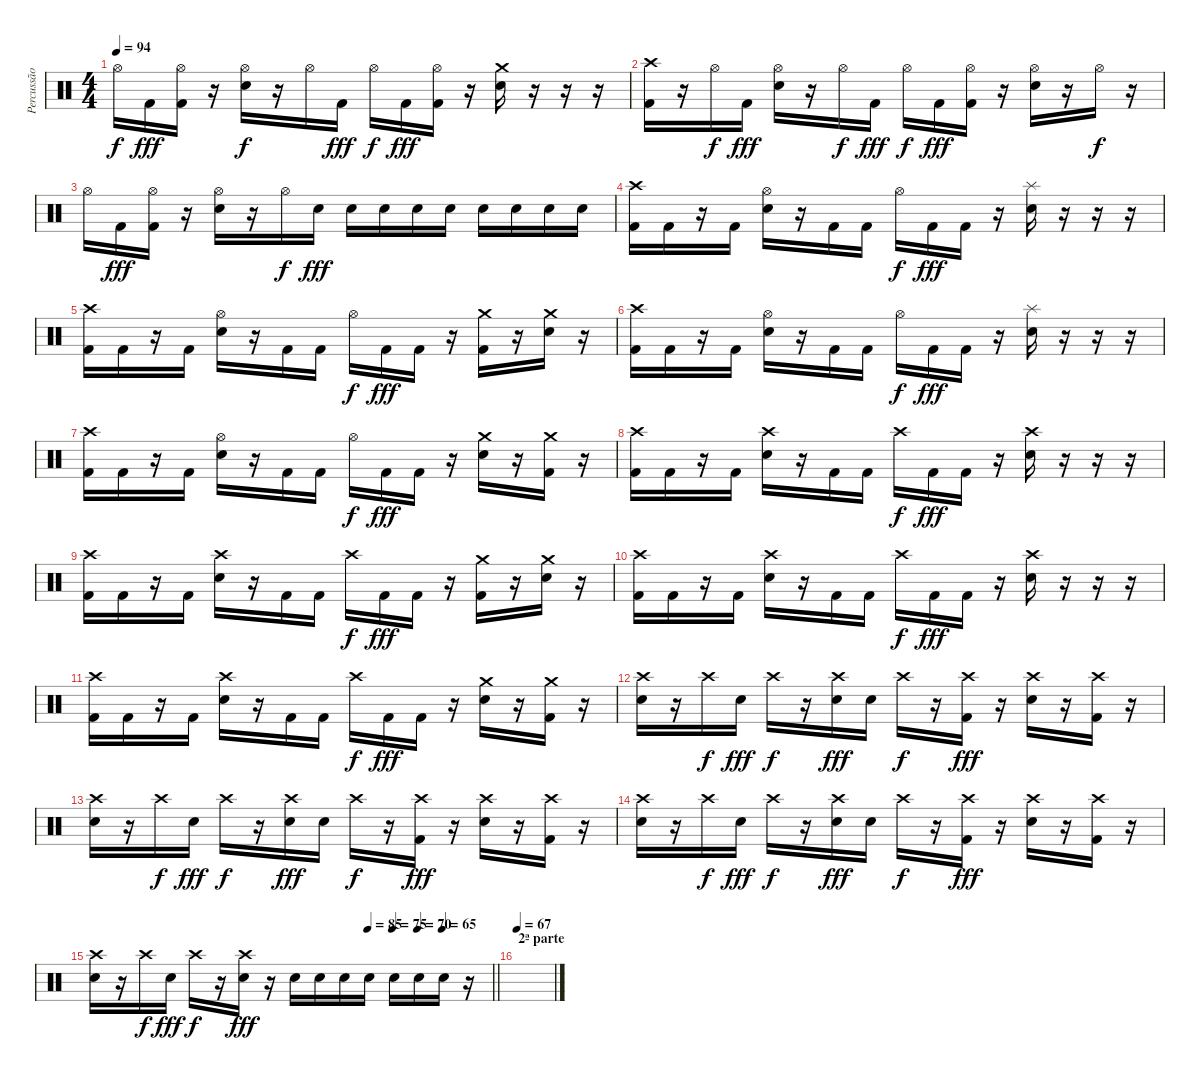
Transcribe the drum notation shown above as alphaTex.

\track ("Percussão" "Percussão") {instrument percussion}
\staff {score}
\articulation defaults
\ts (4 4)
\tempo 94
\clef neutral
\ks c "Hi-Hat (open)".16{dy f} "Kick (hit) 2".16{dy fff}
("Hi-Hat (open)" "Kick (hit) 2").16 r.16 ("Hi-Hat (open)" "Electric Snare (hit)").16{dy f} r.16 "Hi-Hat (open)".16 "Kick (hit) 2".16{dy fff} "Hi-Hat (open)".16{dy f} "Kick (hit) 2".16{dy fff} ("Hi-Hat (open)" "Kick (hit) 2").16 r.16 ("Crash medium (hit)" "Electric Snare (hit)").16 r.16 r.16 r.16 |
("Crash high (hit)" "Kick (hit) 2").16 r.16 "Hi-Hat (open)".16{dy f} "Kick (hit) 2".16{dy fff} ("Hi-Hat (open)" "Electric Snare (hit)").16 r.16 "Hi-Hat (open)".16{dy f} "Kick (hit) 2".16{dy fff} "Hi-Hat (open)".16{dy f} "Kick (hit) 2".16{dy fff} ("Hi-Hat (open)" "Kick (hit) 2").16 r.16 ("Hi-Hat (open)" "Electric Snare (hit)").16 r.16 "Hi-Hat (open)".16{dy f} r.16 |
"Hi-Hat (open)".16 "Kick (hit) 2".16{dy fff} ("Hi-Hat (open)" "Kick (hit) 2").16 r.16 ("Hi-Hat (open)" "Electric Snare (hit)").16 r.16 "Hi-Hat (open)".16{dy f} "Electric Snare (hit)".16{dy fff} "Electric Snare (hit)".16 "Electric Snare (hit)".16 "Electric Snare (hit)".16 "Electric Snare (hit)".16 "Electric Snare (hit)".16 "Electric Snare (hit)".16 "Electric Snare (hit)".16 "Electric Snare (hit)".16 |
("Crash high (hit)" "Kick (hit) 2").16 "Kick (hit) 2".16 r.16 "Kick (hit) 2".16 ("Hi-Hat (open)" "Electric Snare (hit)").16 r.16 "Kick (hit) 2".16 "Kick (hit) 2".16 "Hi-Hat (open)".16{dy f} "Kick (hit) 2".16{dy fff} "Kick (hit) 2".16 r.16 ("Splash (hit)" "Electric Snare (hit)").16 r.16 r.16 r.16 |
("Crash high (hit)" "Kick (hit) 2").16 "Kick (hit) 2".16 r.16 "Kick (hit) 2".16 ("Hi-Hat (open)" "Electric Snare (hit)").16 r.16 "Kick (hit) 2".16 "Kick (hit) 2".16 "Hi-Hat (open)".16{dy f} "Kick (hit) 2".16{dy fff} "Kick (hit) 2".16 r.16 ("Crash medium (hit)" "Kick (hit) 2").16 r.16 ("Crash medium (hit)" "Electric Snare (hit)").16 r.16 |
("Crash high (hit)" "Kick (hit) 2").16 "Kick (hit) 2".16 r.16 "Kick (hit) 2".16 ("Hi-Hat (open)" "Electric Snare (hit)").16 r.16 "Kick (hit) 2".16 "Kick (hit) 2".16 "Hi-Hat (open)".16{dy f} "Kick (hit) 2".16{dy fff} "Kick (hit) 2".16 r.16 ("Splash (hit)" "Electric Snare (hit)").16 r.16 r.16 r.16 |
("Crash high (hit)" "Kick (hit) 2").16 "Kick (hit) 2".16 r.16 "Kick (hit) 2".16 ("Hi-Hat (open)" "Electric Snare (hit)").16 r.16 "Kick (hit) 2".16 "Kick (hit) 2".16 "Hi-Hat (open)".16{dy f} "Kick (hit) 2".16{dy fff} "Kick (hit) 2".16 r.16 ("Crash medium (hit)" "Electric Snare (hit)").16 r.16 ("Crash medium (hit)" "Kick (hit) 2").16 r.16 |
("Crash high (hit)" "Kick (hit) 2").16 "Kick (hit) 2".16 r.16 "Kick (hit) 2".16 ("Crash high (hit)" "Electric Snare (hit)").16 r.16 "Kick (hit) 2".16 "Kick (hit) 2".16 "Crash high (hit)".16{dy f} "Kick (hit) 2".16{dy fff} "Kick (hit) 2".16 r.16 ("Crash high (hit)" "Electric Snare (hit)").16 r.16 r.16 r.16 |
("Crash high (hit)" "Kick (hit) 2").16 "Kick (hit) 2".16 r.16 "Kick (hit) 2".16 ("Crash high (hit)" "Electric Snare (hit)").16 r.16 "Kick (hit) 2".16 "Kick (hit) 2".16 "Crash high (hit)".16{dy f} "Kick (hit) 2".16{dy fff} "Kick (hit) 2".16 r.16 ("Crash medium (hit)" "Kick (hit) 2").16 r.16 ("Crash medium (hit)" "Electric Snare (hit)").16 r.16 |
("Crash high (hit)" "Kick (hit) 2").16 "Kick (hit) 2".16 r.16 "Kick (hit) 2".16 ("Crash high (hit)" "Electric Snare (hit)").16 r.16 "Kick (hit) 2".16 "Kick (hit) 2".16 "Crash high (hit)".16{dy f} "Kick (hit) 2".16{dy fff} "Kick (hit) 2".16 r.16 ("Crash high (hit)" "Electric Snare (hit)").16 r.16 r.16 r.16 |
("Crash high (hit)" "Kick (hit) 2").16 "Kick (hit) 2".16 r.16 "Kick (hit) 2".16 ("Crash high (hit)" "Electric Snare (hit)").16 r.16 "Kick (hit) 2".16 "Kick (hit) 2".16 "Crash high (hit)".16{dy f} "Kick (hit) 2".16{dy fff} "Kick (hit) 2".16 r.16 ("Crash medium (hit)" "Electric Snare (hit)").16 r.16 ("Crash medium (hit)" "Kick (hit) 2").16 r.16 |
("Crash high (hit)" "Electric Snare (hit)").16 r.16 "Crash high (hit)".16{dy f} "Electric Snare (hit)".16{dy fff} "Crash high (hit)".16{dy f} r.16 ("Crash high (hit)" "Electric Snare (hit)").16{dy fff} "Electric Snare (hit)".16 "Crash high (hit)".16{dy f} r.16 ("Crash high (hit)" "Kick (hit) 2").16{dy fff} r.16 ("Crash high (hit)" "Electric Snare (hit)").16 r.16 ("Crash high (hit)" "Kick (hit) 2").16 r.16 |
("Crash high (hit)" "Electric Snare (hit)").16 r.16 "Crash high (hit)".16{dy f} "Electric Snare (hit)".16{dy fff} "Crash high (hit)".16{dy f} r.16 ("Crash high (hit)" "Electric Snare (hit)").16{dy fff} "Electric Snare (hit)".16 "Crash high (hit)".16{dy f} r.16 ("Crash high (hit)" "Kick (hit) 2").16{dy fff} r.16 ("Crash high (hit)" "Electric Snare (hit)").16 r.16 ("Crash high (hit)" "Kick (hit) 2").16 r.16 |
("Crash high (hit)" "Electric Snare (hit)").16 r.16 "Crash high (hit)".16{dy f} "Electric Snare (hit)".16{dy fff} "Crash high (hit)".16{dy f} r.16 ("Crash high (hit)" "Electric Snare (hit)").16{dy fff} "Electric Snare (hit)".16 "Crash high (hit)".16{dy f} r.16 ("Crash high (hit)" "Kick (hit) 2").16{dy fff} r.16 ("Crash high (hit)" "Electric Snare (hit)").16 r.16 ("Crash high (hit)" "Kick (hit) 2").16 r.16 |
\tempo (85 0.6875)
\tempo (75 0.75)
\tempo (70 0.8125)
\tempo (65 0.875)
\barLineRight lightlight
("Crash high (hit)" "Electric Snare (hit)").16 r.16 "Crash high (hit)".16{dy f} "Electric Snare (hit)".16{dy fff} "Crash high (hit)".16{dy f} r.16 ("Crash high (hit)" "Electric Snare (hit)").16{dy fff} r.16 "Electric Snare (hit)".16 "Electric Snare (hit)".16 "Electric Snare (hit)".16 "Electric Snare (hit)".16 "Electric Snare (hit)".16 "Electric Snare (hit)".16 "Electric Snare (hit)".16 r.16 |
\section ("" "2ª parte")
\tempo 67
